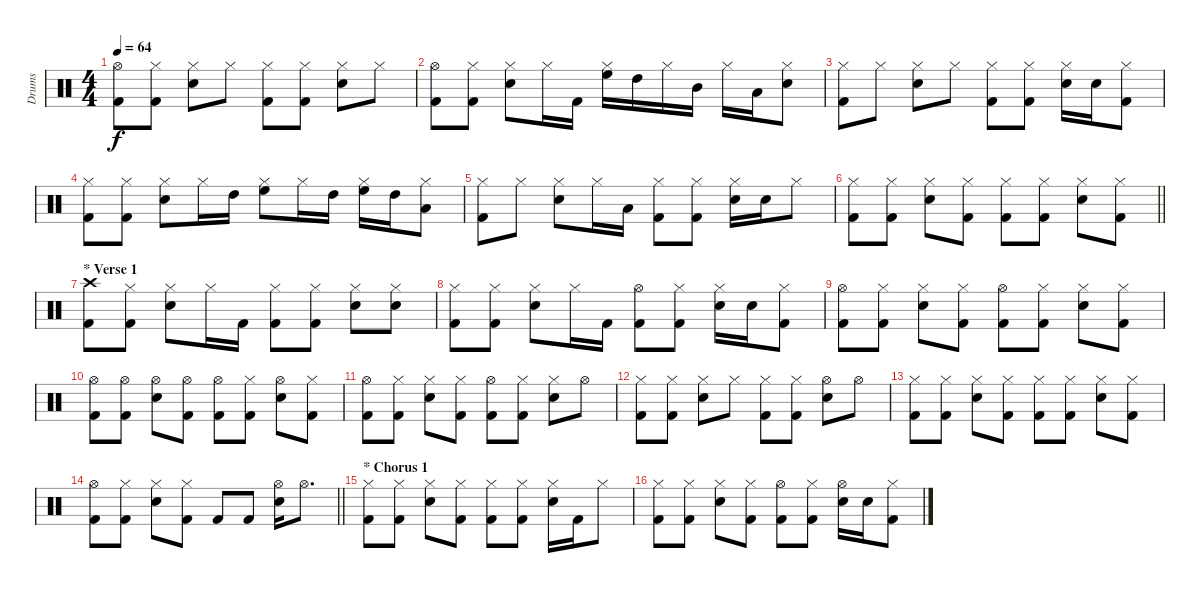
\track ("Drums" "Drums") {instrument percussion}
\staff {score}
\articulation defaults
\ts (4 4)
\tempo 64
\clef neutral
\ks c
("Hi-Hat (open)" "Kick (hit) 2").8{dy f} ("Hi-Hat (closed)" "Kick (hit) 2").8 ("Hi-Hat (closed)" "Electric Snare (hit)").8 "Hi-Hat (closed)".8 ("Hi-Hat (closed)" "Kick (hit) 2").8 ("Hi-Hat (closed)" "Kick (hit) 2").8 ("Hi-Hat (closed)" "Electric Snare (hit)").8 "Hi-Hat (closed)".8 |
("Hi-Hat (open)" "Kick (hit) 2").8 ("Hi-Hat (closed)" "Kick (hit) 2").8 ("Hi-Hat (closed)" "Electric Snare (hit)").8 "Hi-Hat (closed)".16 "Kick (hit) 2".16 ("Hi-Hat (closed)" "High Floor Tom (hit)").16 "High Tom (hit)".16 "Hi-Hat (closed)".16 "Mid Tom (hit)".16 "Hi-Hat (closed)".16 "Low Tom (hit)".16 ("Hi-Hat (closed)" "Electric Snare (hit)").8 |
("Hi-Hat (closed)" "Kick (hit) 2").8 "Hi-Hat (closed)".8 ("Hi-Hat (closed)" "Electric Snare (hit)").8 "Hi-Hat (closed)".8 ("Hi-Hat (closed)" "Kick (hit) 2").8 ("Hi-Hat (closed)" "Kick (hit) 2").8 ("Hi-Hat (closed)" "Electric Snare (hit)").16 "Electric Snare (hit)".16 ("Hi-Hat (closed)" "Kick (hit) 2").8 |
("Hi-Hat (closed)" "Kick (hit) 2").8 ("Hi-Hat (closed)" "Kick (hit) 2").8 ("Hi-Hat (closed)" "Electric Snare (hit)").8 "Hi-Hat (closed)".16 "High Tom (hit)".16 ("Hi-Hat (closed)" "High Floor Tom (hit)").8 "Hi-Hat (closed)".16 "High Tom (hit)".16 ("Hi-Hat (closed)" "High Floor Tom (hit)").16 "High Tom (hit)".16 ("Hi-Hat (closed)" "Low Tom (hit)").8 |
("Hi-Hat (closed)" "Kick (hit) 2").8 "Hi-Hat (closed)".8 ("Hi-Hat (closed)" "Electric Snare (hit)").8 "Hi-Hat (closed)".16 "Low Tom (hit)".16 ("Hi-Hat (closed)" "Kick (hit) 2").8 ("Hi-Hat (closed)" "Kick (hit) 2").8 ("Hi-Hat (closed)" "Electric Snare (hit)").16 "Electric Snare (hit)".16 "Hi-Hat (closed)".8 |
\barLineRight lightlight
("Hi-Hat (closed)" "Kick (hit) 2").8 ("Hi-Hat (closed)" "Kick (hit) 2").8 ("Hi-Hat (closed)" "Electric Snare (hit)").8 ("Hi-Hat (closed)" "Kick (hit) 2").8 ("Hi-Hat (closed)" "Kick (hit) 2").8 ("Hi-Hat (closed)" "Kick (hit) 2").8 ("Hi-Hat (closed)" "Electric Snare (hit)").8 ("Hi-Hat (closed)" "Kick (hit) 2").8 |
\section ("" "* Verse 1")
("Crash high (hit)" "Kick (hit) 2").8 ("Hi-Hat (closed)" "Kick (hit) 2").8 ("Hi-Hat (closed)" "Electric Snare (hit)").8 "Hi-Hat (closed)".16 "Kick (hit) 2".16 ("Hi-Hat (closed)" "Kick (hit) 2").8 ("Hi-Hat (closed)" "Kick (hit) 2").8 ("Hi-Hat (closed)" "Electric Snare (hit)").8 ("Hi-Hat (closed)" "Electric Snare (hit)").8 |
("Hi-Hat (closed)" "Kick (hit) 2").8 ("Hi-Hat (closed)" "Kick (hit) 2").8 ("Hi-Hat (closed)" "Electric Snare (hit)").8 "Hi-Hat (closed)".16 "Kick (hit) 2".16 ("Hi-Hat (open)" "Kick (hit) 2").8 ("Hi-Hat (closed)" "Kick (hit) 2").8 ("Hi-Hat (closed)" "Electric Snare (hit)").16 "Electric Snare (hit)".16 ("Hi-Hat (closed)" "Kick (hit) 2").8 |
("Hi-Hat (open)" "Kick (hit) 2").8 ("Hi-Hat (closed)" "Kick (hit) 2").8 ("Hi-Hat (closed)" "Electric Snare (hit)").8 ("Hi-Hat (closed)" "Kick (hit) 2").8 ("Hi-Hat (open)" "Kick (hit) 2").8 ("Hi-Hat (closed)" "Kick (hit) 2").8 ("Hi-Hat (closed)" "Electric Snare (hit)").8 ("Hi-Hat (closed)" "Kick (hit) 2").8 |
("Hi-Hat (open)" "Kick (hit) 2").8 ("Hi-Hat (open)" "Kick (hit) 2").8 ("Hi-Hat (open)" "Electric Snare (hit)").8 ("Hi-Hat (open)" "Kick (hit) 2").8 ("Hi-Hat (open)" "Kick (hit) 2").8 ("Hi-Hat (closed)" "Kick (hit) 2").8 ("Hi-Hat (open)" "Electric Snare (hit)").8 ("Hi-Hat (closed)" "Kick (hit) 2").8 |
("Hi-Hat (open)" "Kick (hit) 2").8 ("Hi-Hat (closed)" "Kick (hit) 2").8 ("Hi-Hat (closed)" "Electric Snare (hit)").8 ("Hi-Hat (closed)" "Kick (hit) 2").8 ("Hi-Hat (open)" "Kick (hit) 2").8 ("Hi-Hat (closed)" "Kick (hit) 2").8 ("Hi-Hat (closed)" "Electric Snare (hit)").8 "Hi-Hat (open)".8 |
("Hi-Hat (closed)" "Kick (hit) 2").8 ("Hi-Hat (closed)" "Kick (hit) 2").8 ("Hi-Hat (closed)" "Electric Snare (hit)").8 "Hi-Hat (closed)".8 ("Hi-Hat (closed)" "Kick (hit) 2").8 ("Hi-Hat (closed)" "Kick (hit) 2").8 ("Hi-Hat (open)" "Electric Snare (hit)").8 "Hi-Hat (open)".8 |
("Hi-Hat (closed)" "Kick (hit) 2").8 ("Hi-Hat (closed)" "Kick (hit) 2").8 ("Hi-Hat (closed)" "Electric Snare (hit)").8 ("Hi-Hat (closed)" "Kick (hit) 2").8 ("Hi-Hat (closed)" "Kick (hit) 2").8 ("Hi-Hat (closed)" "Kick (hit) 2").8 ("Hi-Hat (closed)" "Electric Snare (hit)").8 ("Hi-Hat (closed)" "Kick (hit) 2").8 |
\barLineRight lightlight
("Hi-Hat (open)" "Kick (hit) 2").8 ("Hi-Hat (closed)" "Kick (hit) 2").8 ("Hi-Hat (closed)" "Electric Snare (hit)").8 ("Hi-Hat (closed)" "Kick (hit) 2").8 "Kick (hit) 2".8 "Kick (hit) 2".8 ("Hi-Hat (open)" "Electric Snare (hit)").16 "Hi-Hat (open)".8{d} |
\section ("" "* Chorus 1")
("Hi-Hat (closed)" "Kick (hit) 2").8 ("Hi-Hat (closed)" "Kick (hit) 2").8 ("Hi-Hat (closed)" "Electric Snare (hit)").8 ("Hi-Hat (closed)" "Kick (hit) 2").8 ("Hi-Hat (closed)" "Kick (hit) 2").8 ("Hi-Hat (closed)" "Kick (hit) 2").8 ("Hi-Hat (closed)" "Electric Snare (hit)").16 "Kick (hit) 2".16 "Hi-Hat (closed)".8 |
("Hi-Hat (closed)" "Kick (hit) 2").8 ("Hi-Hat (closed)" "Kick (hit) 2").8 ("Hi-Hat (closed)" "Electric Snare (hit)").8 ("Hi-Hat (closed)" "Kick (hit) 2").8 ("Hi-Hat (open)" "Kick (hit) 2").8 ("Hi-Hat (closed)" "Kick (hit) 2").8 ("Hi-Hat (open)" "Electric Snare (hit)").16 "Electric Snare (hit)".16 ("Hi-Hat (closed)" "Kick (hit) 2").8
